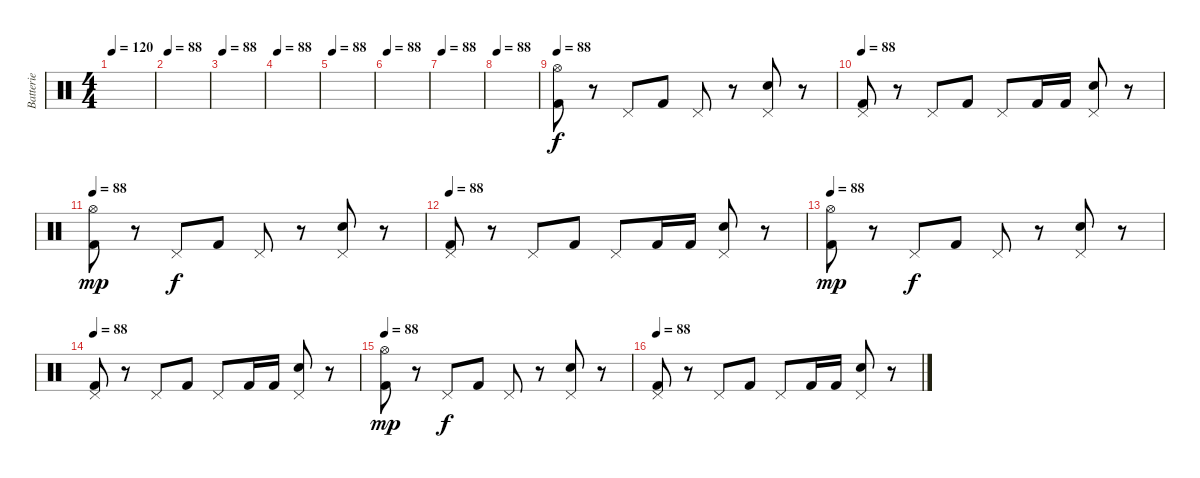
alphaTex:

\track ("Batterie" "Batterie") {instrument percussion}
\staff {score}
\articulation defaults
\ts (4 4)
\tempo 120
\tempo 88
\tempo 120
\clef neutral
\ks c
|
\tempo 88
|
\tempo 88
|
\tempo 88
|
\tempo 88
|
\tempo 88
|
\tempo 88
|
\tempo 88
|
\tempo 88
("Hi-Hat (open)" "Kick (hit) 2").8 r.8 "Pedal Hi-Hat (hit)".8{dy f} "Kick (hit) 2".8 "Pedal Hi-Hat (hit)".8 r.8 ("Pedal Hi-Hat (hit)" "Electric Snare (hit)").8 r.8 |
\tempo 88
("Pedal Hi-Hat (hit)" "Kick (hit) 2").8 r.8 "Pedal Hi-Hat (hit)".8 "Kick (hit) 2".8 "Pedal Hi-Hat (hit)".8 "Kick (hit) 2".16 "Kick (hit) 2".16 ("Pedal Hi-Hat (hit)" "Electric Snare (hit)").8 r.8 |
\tempo 88
("Hi-Hat (open)" "Kick (hit) 2").8{dy mp} r.8 "Pedal Hi-Hat (hit)".8{dy f} "Kick (hit) 2".8 "Pedal Hi-Hat (hit)".8 r.8 ("Pedal Hi-Hat (hit)" "Electric Snare (hit)").8 r.8 |
\tempo 88
("Pedal Hi-Hat (hit)" "Kick (hit) 2").8 r.8 "Pedal Hi-Hat (hit)".8 "Kick (hit) 2".8 "Pedal Hi-Hat (hit)".8 "Kick (hit) 2".16 "Kick (hit) 2".16 ("Pedal Hi-Hat (hit)" "Electric Snare (hit)").8 r.8 |
\tempo 88
("Hi-Hat (open)" "Kick (hit) 2").8{dy mp} r.8 "Pedal Hi-Hat (hit)".8{dy f} "Kick (hit) 2".8 "Pedal Hi-Hat (hit)".8 r.8 ("Pedal Hi-Hat (hit)" "Electric Snare (hit)").8 r.8 |
\tempo 88
("Pedal Hi-Hat (hit)" "Kick (hit) 2").8 r.8 "Pedal Hi-Hat (hit)".8 "Kick (hit) 2".8 "Pedal Hi-Hat (hit)".8 "Kick (hit) 2".16 "Kick (hit) 2".16 ("Pedal Hi-Hat (hit)" "Electric Snare (hit)").8 r.8 |
\tempo 88
("Hi-Hat (open)" "Kick (hit) 2").8{dy mp} r.8 "Pedal Hi-Hat (hit)".8{dy f} "Kick (hit) 2".8 "Pedal Hi-Hat (hit)".8 r.8 ("Pedal Hi-Hat (hit)" "Electric Snare (hit)").8 r.8 |
\tempo 88
("Pedal Hi-Hat (hit)" "Kick (hit) 2").8 r.8 "Pedal Hi-Hat (hit)".8 "Kick (hit) 2".8 "Pedal Hi-Hat (hit)".8 "Kick (hit) 2".16 "Kick (hit) 2".16 ("Pedal Hi-Hat (hit)" "Electric Snare (hit)").8 r.8
